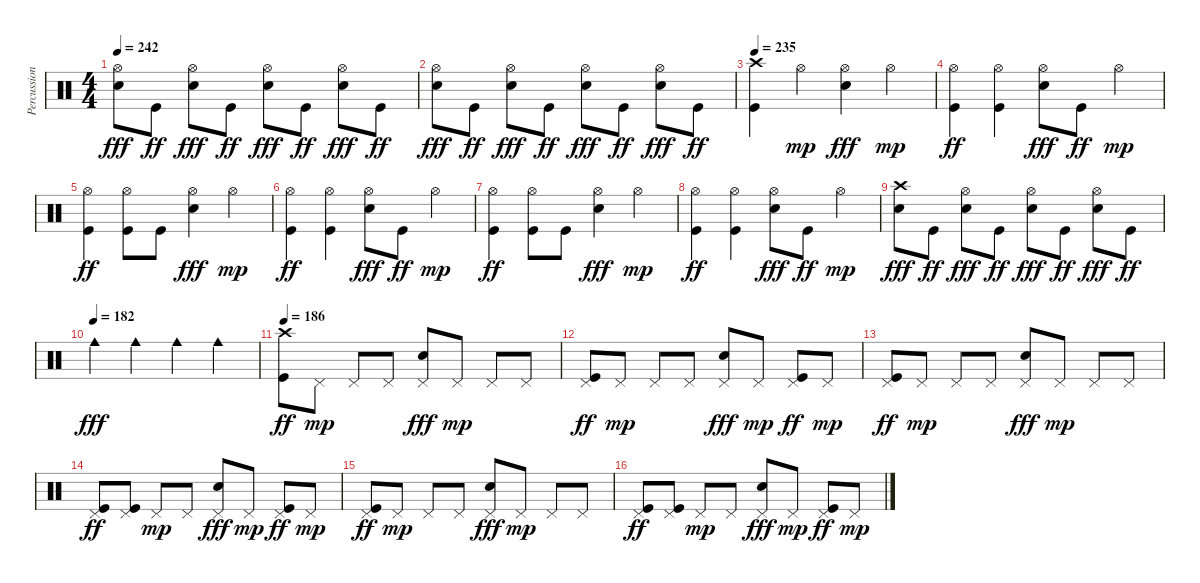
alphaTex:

\track ("Percussion" "Percussion") {instrument percussion}
\staff {score}
\articulation defaults
\ts (4 4)
\tempo 242
\clef neutral
\ks c
("Hi-Hat (open)" "Snare (hit) 2").8{dy fff} "Kick (hit)".8{dy ff} ("Hi-Hat (open)" "Snare (hit) 2").8{dy fff} "Kick (hit)".8{dy ff} ("Hi-Hat (open)" "Snare (hit) 2").8{dy fff} "Kick (hit)".8{dy ff} ("Hi-Hat (open)" "Snare (hit) 2").8{dy fff} "Kick (hit)".8{dy ff} |
("Hi-Hat (open)" "Snare (hit) 2").8{dy fff} "Kick (hit)".8{dy ff} ("Hi-Hat (open)" "Snare (hit) 2").8{dy fff} "Kick (hit)".8{dy ff} ("Hi-Hat (open)" "Snare (hit) 2").8{dy fff} "Kick (hit)".8{dy ff} ("Hi-Hat (open)" "Snare (hit) 2").8{dy fff} "Kick (hit)".8{dy ff} |
\tempo 235
("Crash high (hit)" "Kick (hit)").4 "Hi-Hat (open)".4{dy mp} ("Hi-Hat (open)" "Snare (hit) 2").4{dy fff} "Hi-Hat (open)".4{dy mp} |
("Hi-Hat (open)" "Kick (hit)").4{dy ff} ("Hi-Hat (open)" "Kick (hit)").4 ("Hi-Hat (open)" "Snare (hit) 2").8{dy fff} "Kick (hit)".8{dy ff} "Hi-Hat (open)".4{dy mp} |
("Hi-Hat (open)" "Kick (hit)").4{dy ff} ("Hi-Hat (open)" "Kick (hit)").8 "Kick (hit)".8 ("Hi-Hat (open)" "Snare (hit) 2").4{dy fff} "Hi-Hat (open)".4{dy mp} |
("Hi-Hat (open)" "Kick (hit)").4{dy ff} ("Hi-Hat (open)" "Kick (hit)").4 ("Hi-Hat (open)" "Snare (hit) 2").8{dy fff} "Kick (hit)".8{dy ff} "Hi-Hat (open)".4{dy mp} |
("Hi-Hat (open)" "Kick (hit)").4{dy ff} ("Hi-Hat (open)" "Kick (hit)").8 "Kick (hit)".8 ("Hi-Hat (open)" "Snare (hit) 2").4{dy fff} "Hi-Hat (open)".4{dy mp} |
("Hi-Hat (open)" "Kick (hit)").4{dy ff} ("Hi-Hat (open)" "Kick (hit)").4 ("Hi-Hat (open)" "Snare (hit) 2").8{dy fff} "Kick (hit)".8{dy ff} "Hi-Hat (open)".4{dy mp} |
("Crash high (hit)" "Snare (hit) 2").8{dy fff} "Kick (hit)".8{dy ff} ("Hi-Hat (open)" "Snare (hit) 2").8{dy fff} "Kick (hit)".8{dy ff} ("Hi-Hat (open)" "Snare (hit) 2").8{dy fff} "Kick (hit)".8{dy ff} ("Hi-Hat (open)" "Snare (hit) 2").8{dy fff} "Kick (hit)".8{dy ff} |
\tempo (182)
"Cowbell medium (hit)".4{dy fff} "Cowbell medium (hit)".4 "Cowbell medium (hit)".4 "Cowbell medium (hit)".4 |
\tempo 186
("Crash high (hit)" "Kick (hit)").8{dy ff} "Pedal Hi-Hat (hit)".8{dy mp} "Pedal Hi-Hat (hit)".8 "Pedal Hi-Hat (hit)".8 ("Pedal Hi-Hat (hit)" "Snare (hit) 2").8{dy fff} "Pedal Hi-Hat (hit)".8{dy mp} "Pedal Hi-Hat (hit)".8 "Pedal Hi-Hat (hit)".8 |
("Pedal Hi-Hat (hit)" "Kick (hit)").8{dy ff} "Pedal Hi-Hat (hit)".8{dy mp} "Pedal Hi-Hat (hit)".8 "Pedal Hi-Hat (hit)".8 ("Pedal Hi-Hat (hit)" "Snare (hit) 2").8{dy fff} "Pedal Hi-Hat (hit)".8{dy mp} ("Pedal Hi-Hat (hit)" "Kick (hit)").8{dy ff} "Pedal Hi-Hat (hit)".8{dy mp} |
("Pedal Hi-Hat (hit)" "Kick (hit)").8{dy ff} "Pedal Hi-Hat (hit)".8{dy mp} "Pedal Hi-Hat (hit)".8 "Pedal Hi-Hat (hit)".8 ("Pedal Hi-Hat (hit)" "Snare (hit) 2").8{dy fff} "Pedal Hi-Hat (hit)".8{dy mp} "Pedal Hi-Hat (hit)".8 "Pedal Hi-Hat (hit)".8 |
("Pedal Hi-Hat (hit)" "Kick (hit)").8{dy ff} ("Pedal Hi-Hat (hit)" "Kick (hit)").8 "Pedal Hi-Hat (hit)".8{dy mp} "Pedal Hi-Hat (hit)".8 ("Pedal Hi-Hat (hit)" "Snare (hit) 2").8{dy fff} "Pedal Hi-Hat (hit)".8{dy mp} ("Pedal Hi-Hat (hit)" "Kick (hit)").8{dy ff} "Pedal Hi-Hat (hit)".8{dy mp} |
("Pedal Hi-Hat (hit)" "Kick (hit)").8{dy ff} "Pedal Hi-Hat (hit)".8{dy mp} "Pedal Hi-Hat (hit)".8 "Pedal Hi-Hat (hit)".8 ("Pedal Hi-Hat (hit)" "Snare (hit) 2").8{dy fff} "Pedal Hi-Hat (hit)".8{dy mp} "Pedal Hi-Hat (hit)".8 "Pedal Hi-Hat (hit)".8 |
("Pedal Hi-Hat (hit)" "Kick (hit)").8{dy ff} ("Pedal Hi-Hat (hit)" "Kick (hit)").8 "Pedal Hi-Hat (hit)".8{dy mp} "Pedal Hi-Hat (hit)".8 ("Pedal Hi-Hat (hit)" "Snare (hit) 2").8{dy fff} "Pedal Hi-Hat (hit)".8{dy mp} ("Pedal Hi-Hat (hit)" "Kick (hit)").8{dy ff} "Pedal Hi-Hat (hit)".8{dy mp}
